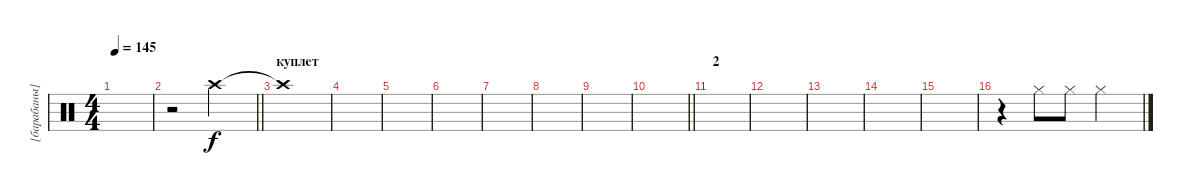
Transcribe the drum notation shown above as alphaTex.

\track ("[барабаны]" "[барабаны]") {instrument percussion}
\staff
\articulation defaults
\ts (4 4)
\tempo 145
\clef neutral
\ks c
|
\barLineRight lightlight
r.2{volume 0} "Crash high (hit)".2{volume 13} |
\section ("" "куплет")
"Crash high (hit)"{t}.1 |
|
|
|
|
|
|
\barLineRight lightlight
|
\section ("" "2")
|
|
|
|
|
r.4 "Hi-Hat (closed)".8 "Hi-Hat (closed)".8 "Hi-Hat (closed)".2
